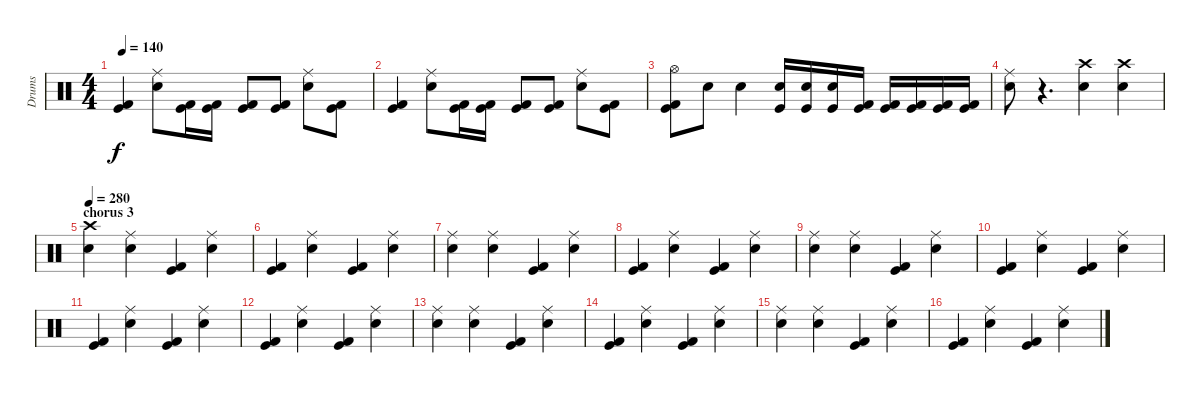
\track ("Drums" "Drums") {instrument percussion}
\staff {score}
\articulation defaults
\ts (4 4)
\tempo 140
\clef neutral
\ks c
("Kick (hit)" "Kick (hit) 2").4{dy f} ("Ride (middle)" "Electric Snare (hit)").8 ("Kick (hit)" "Kick (hit) 2").16 ("Kick (hit)" "Kick (hit) 2").16 ("Kick (hit)" "Kick (hit) 2").8 ("Kick (hit)" "Kick (hit) 2").8 ("Ride (middle)" "Electric Snare (hit)").8 ("Kick (hit)" "Kick (hit) 2").8 |
("Kick (hit)" "Kick (hit) 2").4 ("Ride (middle)" "Electric Snare (hit)").8 ("Kick (hit)" "Kick (hit) 2").16 ("Kick (hit)" "Kick (hit) 2").16 ("Kick (hit)" "Kick (hit) 2").8 ("Kick (hit)" "Kick (hit) 2").8 ("Ride (middle)" "Electric Snare (hit)").8 ("Kick (hit)" "Kick (hit) 2").8 |
("Hi-Hat (open)" "Kick (hit)" "Kick (hit) 2").8 "Electric Snare (hit)".8 "Electric Snare (hit)".4 ("Kick (hit)" "Snare (hit) 2").16 ("Kick (hit)" "Snare (hit) 2").16 ("Kick (hit)" "Snare (hit) 2").16 ("Kick (hit)" "Kick (hit) 2").16 ("Kick (hit)" "Kick (hit) 2").16 ("Kick (hit)" "Kick (hit) 2").16 ("Kick (hit)" "Kick (hit) 2").16 ("Kick (hit)" "Kick (hit) 2").16 |
("Ride (middle)" "Electric Snare (hit)").8 r.4{d} ("Crash high (hit)" "Electric Snare (hit)").4 ("Crash high (hit)" "Electric Snare (hit)").4 |
\section ("" "chorus 3")
\tempo 280
("Crash high (hit)" "Electric Snare (hit)").4 ("Ride (middle)" "Electric Snare (hit)").4 ("Kick (hit)" "Kick (hit) 2").4 ("Ride (middle)" "Electric Snare (hit)").4 |
("Kick (hit)" "Kick (hit) 2").4 ("Ride (middle)" "Electric Snare (hit)").4 ("Kick (hit)" "Kick (hit) 2").4 ("Ride (middle)" "Electric Snare (hit)").4 |
("Ride (middle)" "Electric Snare (hit)").4 ("Ride (middle)" "Electric Snare (hit)").4 ("Kick (hit)" "Kick (hit) 2").4 ("Ride (middle)" "Electric Snare (hit)").4 |
("Kick (hit)" "Kick (hit) 2").4 ("Ride (middle)" "Electric Snare (hit)").4 ("Kick (hit)" "Kick (hit) 2").4 ("Ride (middle)" "Electric Snare (hit)").4 |
("Ride (middle)" "Electric Snare (hit)").4 ("Ride (middle)" "Electric Snare (hit)").4 ("Kick (hit)" "Kick (hit) 2").4 ("Ride (middle)" "Electric Snare (hit)").4 |
("Kick (hit)" "Kick (hit) 2").4 ("Ride (middle)" "Electric Snare (hit)").4 ("Kick (hit)" "Kick (hit) 2").4 ("Ride (middle)" "Electric Snare (hit)").4 |
("Kick (hit)" "Kick (hit) 2").4 ("Ride (middle)" "Electric Snare (hit)").4 ("Kick (hit)" "Kick (hit) 2").4 ("Ride (middle)" "Electric Snare (hit)").4 |
("Kick (hit)" "Kick (hit) 2").4 ("Ride (middle)" "Electric Snare (hit)").4 ("Kick (hit)" "Kick (hit) 2").4 ("Ride (middle)" "Electric Snare (hit)").4 |
("Ride (middle)" "Electric Snare (hit)").4 ("Ride (middle)" "Electric Snare (hit)").4 ("Kick (hit)" "Kick (hit) 2").4 ("Ride (middle)" "Electric Snare (hit)").4 |
("Kick (hit)" "Kick (hit) 2").4 ("Ride (middle)" "Electric Snare (hit)").4 ("Kick (hit)" "Kick (hit) 2").4 ("Ride (middle)" "Electric Snare (hit)").4 |
("Ride (middle)" "Electric Snare (hit)").4 ("Ride (middle)" "Electric Snare (hit)").4 ("Kick (hit)" "Kick (hit) 2").4 ("Ride (middle)" "Electric Snare (hit)").4 |
("Kick (hit)" "Kick (hit) 2").4 ("Ride (middle)" "Electric Snare (hit)").4 ("Kick (hit)" "Kick (hit) 2").4 ("Ride (middle)" "Electric Snare (hit)").4
